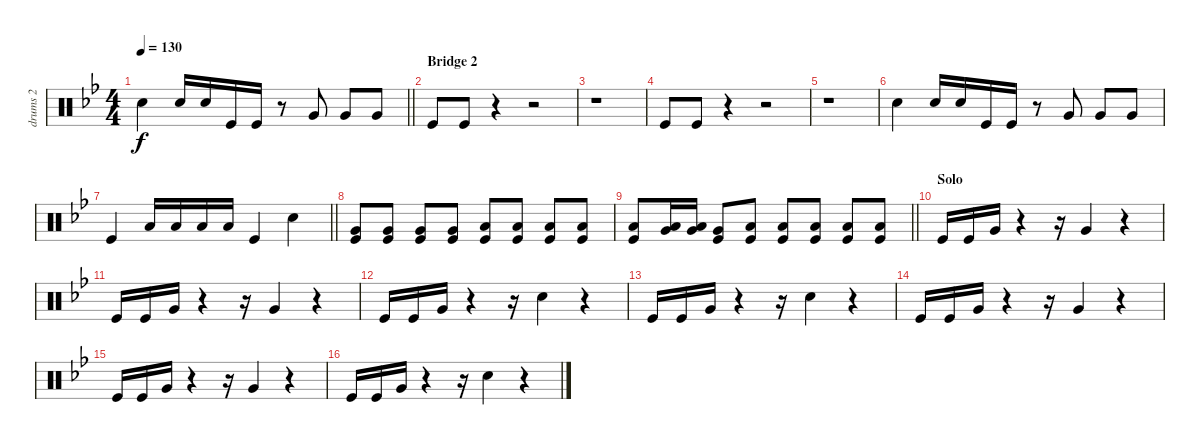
\track ("drums 2" "drums 2") {instrument percussion}
\staff {score}
\articulation defaults
\ts (4 4)
\tempo 130
\clef neutral
\barLineRight lightlight
\ks bb "Snare (hit) 2".4{dy f} "Snare (hit) 2".16 "Snare (hit) 2".16 "Kick (hit)".16 "Kick (hit)".16
r.8 "Very Low Tom (hit)".8 "Very Low Tom (hit)".8 "Very Low Tom (hit)".8 |
\section ("" "Bridge 2")
"Kick (hit)".8 "Kick (hit)".8 r.4 r.2 |
r.1 |
"Kick (hit)".8 "Kick (hit)".8 r.4 r.2 |
r.1 |
"Snare (hit) 2".4 "Snare (hit) 2".16 "Snare (hit) 2".16 "Kick (hit)".16 "Kick (hit)".16 r.8 "Very Low Tom (hit)".8 "Very Low Tom (hit)".8 "Very Low Tom (hit)".8 |
\barLineRight lightlight "Kick (hit)".4 "Low Tom (hit)".16 "Low Tom (hit)".16 "Low Tom (hit)".16 "Low Tom (hit)".16 "Kick (hit)".4 "Snare (hit) 2".4
|
("Very Low Tom (hit)" "Kick (hit)").8 ("Very Low Tom (hit)" "Kick (hit)").8 ("Very Low Tom (hit)" "Kick (hit)").8 ("Very Low Tom (hit)" "Kick (hit)").8 ("Low Floor Tom (hit)" "Kick (hit)").8 ("Low Floor Tom (hit)" "Kick (hit)").8 ("Low Floor Tom (hit)" "Kick (hit)").8 ("Low Floor Tom (hit)" "Kick (hit)").8 |
\barLineRight lightlight
("Low Floor Tom (hit)" "Kick (hit)").8 ("Very Low Tom (hit)" "Low Floor Tom (hit)").16 ("Very Low Tom (hit)" "Low Floor Tom (hit)").16 ("Very Low Tom (hit)" "Kick (hit)").8 ("Low Floor Tom (hit)" "Kick (hit)").8 ("Low Floor Tom (hit)" "Kick (hit)").8 ("Kick (hit)" "Low Floor Tom (hit)").8 ("Kick (hit)" "Low Floor Tom (hit)").8 ("Kick (hit)" "Low Floor Tom (hit)").8 |
\section ("" "Solo")
"Kick (hit)".16 "Kick (hit)".16 "Very Low Tom (hit)".16 r.4 r.16 "Very Low Tom (hit)".4 r.4 |
"Kick (hit)".16 "Kick (hit)".16 "Very Low Tom (hit)".16 r.4 r.16 "Very Low Tom (hit)".4 r.4 |
"Kick (hit)".16 "Kick (hit)".16 "Very Low Tom (hit)".16 r.4 r.16 "Snare (hit) 2".4 r.4 |
"Kick (hit)".16 "Kick (hit)".16 "Very Low Tom (hit)".16 r.4 r.16 "Snare (hit) 2".4 r.4 |
"Kick (hit)".16 "Kick (hit)".16 "Very Low Tom (hit)".16 r.4 r.16 "Very Low Tom (hit)".4 r.4 |
"Kick (hit)".16 "Kick (hit)".16 "Very Low Tom (hit)".16 r.4 r.16 "Very Low Tom (hit)".4 r.4 |
"Kick (hit)".16 "Kick (hit)".16 "Very Low Tom (hit)".16 r.4 r.16 "Snare (hit) 2".4 r.4
